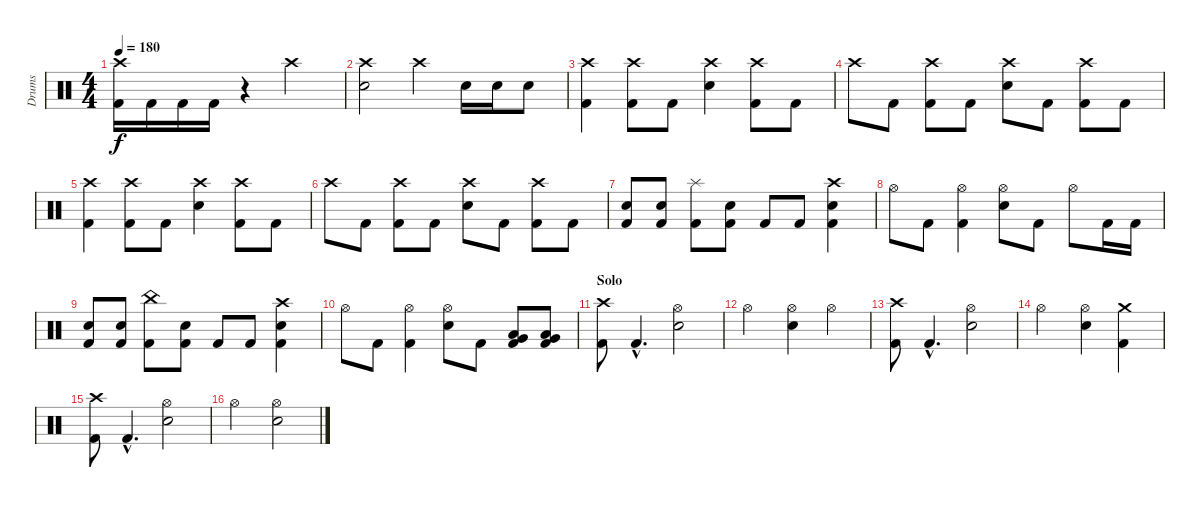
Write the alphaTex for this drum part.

\track ("Drums" "Drums") {instrument percussion}
\staff {score}
\articulation defaults
\ts (4 4)
\tempo 180
\clef neutral
\ks c
("Crash high (hit)" "Kick (hit) 2").16{dy f} "Kick (hit) 2".16 "Kick (hit) 2".16 "Kick (hit) 2".16 r.4 "Crash high (hit)".2 |
("Crash high (hit)" "Electric Snare (hit)").2 "Crash high (hit)".4 "Electric Snare (hit)".16 "Electric Snare (hit)".16 "Electric Snare (hit)".8 |
("Crash high (hit)" "Kick (hit) 2").4 ("Crash high (hit)" "Kick (hit) 2").8 "Kick (hit) 2".8 ("Crash high (hit)" "Electric Snare (hit)").4 ("Crash high (hit)" "Kick (hit) 2").8 "Kick (hit) 2".8 |
"Crash high (hit)".8 "Kick (hit) 2".8 ("Crash high (hit)" "Kick (hit) 2").8 "Kick (hit) 2".8 ("Crash high (hit)" "Electric Snare (hit)").8 "Kick (hit) 2".8 ("Crash high (hit)" "Kick (hit) 2").8 "Kick (hit) 2".8 |
("Crash high (hit)" "Kick (hit) 2").4 ("Crash high (hit)" "Kick (hit) 2").8 "Kick (hit) 2".8 ("Crash high (hit)" "Electric Snare (hit)").4 ("Crash high (hit)" "Kick (hit) 2").8 "Kick (hit) 2".8 |
"Crash high (hit)".8 "Kick (hit) 2".8 ("Crash high (hit)" "Kick (hit) 2").8 "Kick (hit) 2".8 ("Crash high (hit)" "Electric Snare (hit)").8 "Kick (hit) 2".8 ("Crash high (hit)" "Kick (hit) 2").8 "Kick (hit) 2".8 |
("Electric Snare (hit)" "Kick (hit) 2").8 ("Electric Snare (hit)" "Kick (hit) 2").8 ("Splash (hit)" "Kick (hit) 2").8 ("Electric Snare (hit)" "Kick (hit) 2").8 "Kick (hit) 2".8 "Kick (hit) 2".8 ("Crash high (hit)" "Electric Snare (hit)" "Kick (hit) 2").4 |
"Hi-Hat (open)".8 "Kick (hit) 2".8 ("Hi-Hat (open)" "Kick (hit) 2").4 ("Hi-Hat (open)" "Electric Snare (hit)").8 "Kick (hit) 2".8 "Hi-Hat (open)".8 "Kick (hit) 2".16 "Kick (hit) 2".16 |
("Electric Snare (hit)" "Kick (hit) 2").8 ("Electric Snare (hit)" "Kick (hit) 2").8 ("China (hit)" "Kick (hit) 2").8 ("Electric Snare (hit)" "Kick (hit) 2").8 "Kick (hit) 2".8 "Kick (hit) 2".8 ("Crash high (hit)" "Electric Snare (hit)" "Kick (hit) 2").4 |
"Hi-Hat (open)".8 "Kick (hit) 2".8 ("Hi-Hat (open)" "Kick (hit) 2").4 ("Hi-Hat (open)" "Electric Snare (hit)").8 "Kick (hit) 2".8 ("Low Tom (hit)" "Very Low Tom (hit)" "Kick (hit) 2").8 ("Low Tom (hit)" "Very Low Tom (hit)" "Kick (hit) 2").8 |
\section ("" "Solo")
("Crash high (hit)" "Kick (hit) 2").8 "Kick (hit) 2"{hac}.4{d} ("Hi-Hat (open)" "Electric Snare (hit)").2 |
"Hi-Hat (open)".2 ("Hi-Hat (open)" "Electric Snare (hit)").4 "Hi-Hat (open)".4 |
("Crash high (hit)" "Kick (hit) 2").8 "Kick (hit) 2"{hac}.4{d} ("Hi-Hat (open)" "Electric Snare (hit)").2 |
"Hi-Hat (open)".2 ("Hi-Hat (open)" "Electric Snare (hit)").4 ("Crash medium (hit)" "Kick (hit) 2").4 |
("Crash high (hit)" "Kick (hit) 2").8 "Kick (hit) 2"{hac}.4{d} ("Hi-Hat (open)" "Electric Snare (hit)").2 |
"Hi-Hat (open)".2 ("Hi-Hat (open)" "Electric Snare (hit)").2
